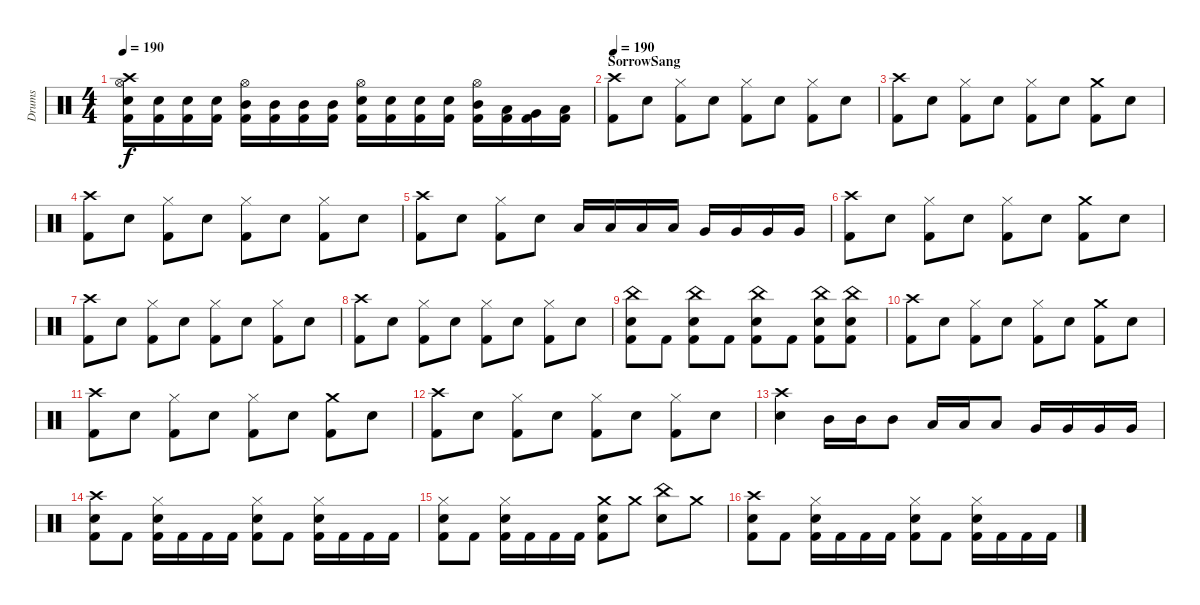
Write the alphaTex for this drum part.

\track ("Drums" "Drums") {instrument percussion}
\staff {score}
\articulation defaults
\ts (4 4)
\tempo 190
\clef neutral
\ks c
("Crash high (hit)" "Hi-Hat (open)" "Electric Snare (hit)" "Kick (hit) 2").16{dy f} ("Electric Snare (hit)" "Kick (hit) 2").16 ("Electric Snare (hit)" "Kick (hit) 2").16 ("Electric Snare (hit)" "Kick (hit) 2").16 ("Hi-Hat (open)" "Mid Tom (hit)" "Kick (hit) 2").16 ("Mid Tom (hit)" "Kick (hit) 2").16 ("Mid Tom (hit)" "Kick (hit) 2").16 ("Mid Tom (hit)" "Kick (hit) 2").16 ("Hi-Hat (open)" "Electric Snare (hit)" "Kick (hit) 2").16 ("Electric Snare (hit)" "Kick (hit) 2").16 ("Electric Snare (hit)" "Kick (hit) 2").16 ("Electric Snare (hit)" "Kick (hit) 2").16 ("Hi-Hat (open)" "Mid Tom (hit)" "Kick (hit) 2").16 ("Low Tom (hit)" "Kick (hit) 2").16 ("Very Low Tom (hit)" "Kick (hit) 2").16 ("Low Floor Tom (hit)" "Kick (hit) 2").16 |
\section ("" "SorrowSang")
\tempo 190
("Kick (hit) 2" "Crash high (hit)").8 "Snare (hit) 2".8 ("Kick (hit) 2" "Hi-Hat (closed)").8 "Snare (hit) 2".8 ("Kick (hit) 2" "Hi-Hat (closed)").8 "Snare (hit) 2".8 ("Kick (hit) 2" "Hi-Hat (closed)").8 "Snare (hit) 2".8 |
("Kick (hit) 2" "Crash high (hit)").8 "Snare (hit) 2".8 ("Kick (hit) 2" "Hi-Hat (closed)").8 "Snare (hit) 2".8 ("Kick (hit) 2" "Hi-Hat (closed)").8 "Snare (hit) 2".8 ("Kick (hit) 2" "Crash medium (hit)").8 "Snare (hit) 2".8 |
("Kick (hit) 2" "Crash high (hit)").8 "Snare (hit) 2".8 ("Kick (hit) 2" "Hi-Hat (closed)").8 "Snare (hit) 2".8 ("Kick (hit) 2" "Hi-Hat (closed)").8 "Snare (hit) 2".8 ("Kick (hit) 2" "Hi-Hat (closed)").8 "Snare (hit) 2".8 |
("Kick (hit) 2" "Crash high (hit)").8 "Snare (hit) 2".8 ("Kick (hit) 2" "Hi-Hat (closed)").8 "Snare (hit) 2".8 "Low Tom (hit)".16 "Low Tom (hit)".16 "Low Tom (hit)".16 "Low Tom (hit)".16 "Very Low Tom (hit)".16 "Very Low Tom (hit)".16 "Very Low Tom (hit)".16 "Very Low Tom (hit)".16 |
("Kick (hit) 2" "Crash high (hit)").8 "Snare (hit) 2".8 ("Kick (hit) 2" "Hi-Hat (closed)").8 "Snare (hit) 2".8 ("Kick (hit) 2" "Hi-Hat (closed)").8 "Snare (hit) 2".8 ("Kick (hit) 2" "Crash medium (hit)").8 "Snare (hit) 2".8 |
("Kick (hit) 2" "Crash high (hit)").8 "Snare (hit) 2".8 ("Kick (hit) 2" "Hi-Hat (closed)").8 "Snare (hit) 2".8 ("Kick (hit) 2" "Hi-Hat (closed)").8 "Snare (hit) 2".8 ("Kick (hit) 2" "Hi-Hat (closed)").8 "Snare (hit) 2".8 |
("Kick (hit) 2" "Crash high (hit)").8 "Snare (hit) 2".8 ("Kick (hit) 2" "Hi-Hat (closed)").8 "Snare (hit) 2".8 ("Kick (hit) 2" "Hi-Hat (closed)").8 "Snare (hit) 2".8 ("Kick (hit) 2" "Hi-Hat (closed)").8 "Snare (hit) 2".8 |
("Kick (hit) 2" "Snare (hit) 2" "China (hit)").8 "Kick (hit) 2".8 ("Kick (hit) 2" "Snare (hit) 2" "China (hit)").8 "Kick (hit) 2".8 ("Kick (hit) 2" "Snare (hit) 2" "China (hit)").8 "Kick (hit) 2".8 ("Kick (hit) 2" "Snare (hit) 2" "China (hit)").8 ("Kick (hit) 2" "Snare (hit) 2" "China (hit)").8 |
("Kick (hit) 2" "Crash high (hit)").8 "Snare (hit) 2".8 ("Kick (hit) 2" "Hi-Hat (closed)").8 "Snare (hit) 2".8 ("Kick (hit) 2" "Hi-Hat (closed)").8 "Snare (hit) 2".8 ("Kick (hit) 2" "Crash medium (hit)").8 "Snare (hit) 2".8 |
("Kick (hit) 2" "Crash high (hit)").8 "Snare (hit) 2".8 ("Kick (hit) 2" "Hi-Hat (closed)").8 "Snare (hit) 2".8 ("Kick (hit) 2" "Hi-Hat (closed)").8 "Snare (hit) 2".8 ("Kick (hit) 2" "Crash medium (hit)").8 "Snare (hit) 2".8 |
("Kick (hit) 2" "Crash high (hit)").8 "Snare (hit) 2".8 ("Kick (hit) 2" "Hi-Hat (closed)").8 "Snare (hit) 2".8 ("Kick (hit) 2" "Hi-Hat (closed)").8 "Snare (hit) 2".8 ("Kick (hit) 2" "Hi-Hat (closed)").8 "Snare (hit) 2".8 |
("Snare (hit) 2" "Crash high (hit)").4 "Mid Tom (hit)".16 "Mid Tom (hit)".16 "Mid Tom (hit)".8 "Low Tom (hit)".16 "Low Tom (hit)".16 "Low Tom (hit)".8 "Very Low Tom (hit)".16 "Very Low Tom (hit)".16 "Very Low Tom (hit)".16 "Very Low Tom (hit)".16 |
("Kick (hit) 2" "Snare (hit) 2" "Crash high (hit)").8 "Kick (hit) 2".8 ("Kick (hit) 2" "Snare (hit) 2" "Hi-Hat (closed)").16 "Kick (hit) 2".16 "Kick (hit) 2".16 "Kick (hit) 2".16 ("Kick (hit) 2" "Snare (hit) 2" "Hi-Hat (closed)").8 "Kick (hit) 2".8 ("Kick (hit) 2" "Snare (hit) 2" "Hi-Hat (closed)").16 "Kick (hit) 2".16 "Kick (hit) 2".16 "Kick (hit) 2".16 |
("Kick (hit) 2" "Snare (hit) 2" "Hi-Hat (closed)").8 "Kick (hit) 2".8 ("Kick (hit) 2" "Snare (hit) 2" "Hi-Hat (closed)").16 "Kick (hit) 2".16 "Kick (hit) 2".16 "Kick (hit) 2".16 ("Kick (hit) 2" "Snare (hit) 2" "Crash medium (hit)").8 "Crash medium (hit)".8 ("Snare (hit) 2" "China (hit)").8 "Crash medium (hit)".8 |
("Kick (hit) 2" "Snare (hit) 2" "Crash high (hit)").8 "Kick (hit) 2".8 ("Kick (hit) 2" "Snare (hit) 2" "Hi-Hat (closed)").16 "Kick (hit) 2".16 "Kick (hit) 2".16 "Kick (hit) 2".16 ("Kick (hit) 2" "Snare (hit) 2" "Hi-Hat (closed)").8 "Kick (hit) 2".8 ("Kick (hit) 2" "Snare (hit) 2" "Hi-Hat (closed)").16 "Kick (hit) 2".16 "Kick (hit) 2".16 "Kick (hit) 2".16
